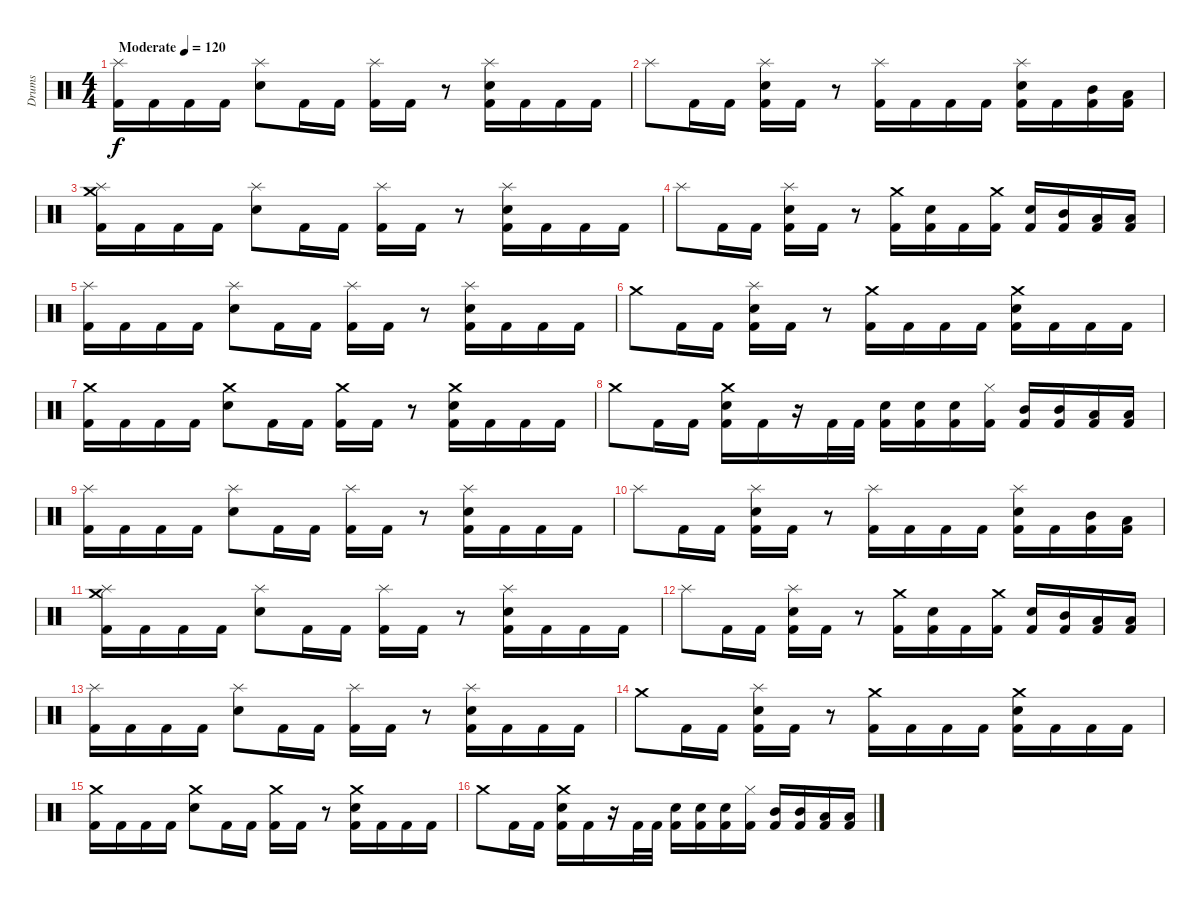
\track ("Drums" "Drums") {instrument percussion}
\staff {score}
\articulation defaults
\ts (4 4)
\tempo (120 "Moderate")
\clef neutral
\ks c
("Splash (hit)" "Kick (hit) 2").16{dy f} "Kick (hit) 2".16 "Kick (hit) 2".16 "Kick (hit) 2".16 ("Splash (hit)" "Electric Snare (hit)").8 "Kick (hit) 2".16 "Kick (hit) 2".16 ("Splash (hit)" "Kick (hit) 2").16 "Kick (hit) 2".16 r.8 ("Splash (hit)" "Electric Snare (hit)" "Kick (hit) 2").16 "Kick (hit) 2".16 "Kick (hit) 2".16 "Kick (hit) 2".16 |
"Splash (hit)".8 "Kick (hit) 2".16 "Kick (hit) 2".16 ("Splash (hit)" "Electric Snare (hit)" "Kick (hit) 2").16 "Kick (hit) 2".16 r.8 ("Splash (hit)" "Kick (hit) 2").16 "Kick (hit) 2".16 "Kick (hit) 2".16 "Kick (hit) 2".16 ("Splash (hit)" "Electric Snare (hit)" "Kick (hit) 2").16 "Kick (hit) 2".16 ("Mid Tom (hit)" "Kick (hit) 2").16 ("Low Tom (hit)" "Kick (hit) 2").16 |
("Splash (hit)" "Crash medium (hit)" "Kick (hit) 2").16 "Kick (hit) 2".16 "Kick (hit) 2".16 "Kick (hit) 2".16 ("Splash (hit)" "Electric Snare (hit)").8 "Kick (hit) 2".16 "Kick (hit) 2".16 ("Splash (hit)" "Kick (hit) 2").16 "Kick (hit) 2".16 r.8 ("Splash (hit)" "Electric Snare (hit)" "Kick (hit) 2").16 "Kick (hit) 2".16 "Kick (hit) 2".16 "Kick (hit) 2".16 |
"Splash (hit)".8 "Kick (hit) 2".16 "Kick (hit) 2".16 ("Splash (hit)" "Electric Snare (hit)" "Kick (hit) 2").16 "Kick (hit) 2".16 r.8 ("Crash medium (hit)" "Kick (hit) 2").16 ("Electric Snare (hit)" "Kick (hit) 2").16 "Kick (hit) 2".16 ("Crash medium (hit)" "Kick (hit) 2").16 ("Electric Snare (hit)" "Kick (hit) 2").16 ("Mid Tom (hit)" "Kick (hit) 2").16 ("Low Tom (hit)" "Kick (hit) 2").16 ("Low Tom (hit)" "Kick (hit) 2").16 |
("Splash (hit)" "Kick (hit) 2").16 "Kick (hit) 2".16 "Kick (hit) 2".16 "Kick (hit) 2".16 ("Splash (hit)" "Electric Snare (hit)").8 "Kick (hit) 2".16 "Kick (hit) 2".16 ("Splash (hit)" "Kick (hit) 2").16 "Kick (hit) 2".16 r.8 ("Splash (hit)" "Electric Snare (hit)" "Kick (hit) 2").16 "Kick (hit) 2".16 "Kick (hit) 2".16 "Kick (hit) 2".16 |
"Crash medium (hit)".8 "Kick (hit) 2".16 "Kick (hit) 2".16 ("Splash (hit)" "Electric Snare (hit)" "Kick (hit) 2").16 "Kick (hit) 2".16 r.8 ("Crash medium (hit)" "Kick (hit) 2").16 "Kick (hit) 2".16 "Kick (hit) 2".16 "Kick (hit) 2".16 ("Crash medium (hit)" "Electric Snare (hit)" "Kick (hit) 2").16 "Kick (hit) 2".16 "Kick (hit) 2".16 "Kick (hit) 2".16 |
("Crash medium (hit)" "Kick (hit) 2").16 "Kick (hit) 2".16 "Kick (hit) 2".16 "Kick (hit) 2".16 ("Crash medium (hit)" "Electric Snare (hit)").8 "Kick (hit) 2".16 "Kick (hit) 2".16 ("Crash medium (hit)" "Kick (hit) 2").16 "Kick (hit) 2".16 r.8 ("Crash medium (hit)" "Electric Snare (hit)" "Kick (hit) 2").16 "Kick (hit) 2".16 "Kick (hit) 2".16 "Kick (hit) 2".16 |
"Crash medium (hit)".8 "Kick (hit) 2".16 "Kick (hit) 2".16 ("Crash medium (hit)" "Electric Snare (hit)" "Kick (hit) 2").16 "Kick (hit) 2".16 r.16 "Kick (hit) 2".32 "Kick (hit) 2".32 ("Electric Snare (hit)" "Kick (hit) 2").16 ("Electric Snare (hit)" "Kick (hit) 2").16 ("Electric Snare (hit)" "Kick (hit) 2").16 ("Hi-Hat (closed)" "Kick (hit) 2").16 ("Mid Tom (hit)" "Kick (hit) 2").16 ("Mid Tom (hit)" "Kick (hit) 2").16 ("Low Tom (hit)" "Kick (hit) 2").16 ("Low Tom (hit)" "Kick (hit) 2").16 |
("Splash (hit)" "Kick (hit) 2").16 "Kick (hit) 2".16 "Kick (hit) 2".16 "Kick (hit) 2".16 ("Splash (hit)" "Electric Snare (hit)").8 "Kick (hit) 2".16 "Kick (hit) 2".16 ("Splash (hit)" "Kick (hit) 2").16 "Kick (hit) 2".16 r.8 ("Splash (hit)" "Electric Snare (hit)" "Kick (hit) 2").16 "Kick (hit) 2".16 "Kick (hit) 2".16 "Kick (hit) 2".16 |
"Splash (hit)".8 "Kick (hit) 2".16 "Kick (hit) 2".16 ("Splash (hit)" "Electric Snare (hit)" "Kick (hit) 2").16 "Kick (hit) 2".16 r.8 ("Splash (hit)" "Kick (hit) 2").16 "Kick (hit) 2".16 "Kick (hit) 2".16 "Kick (hit) 2".16 ("Splash (hit)" "Electric Snare (hit)" "Kick (hit) 2").16 "Kick (hit) 2".16 ("Mid Tom (hit)" "Kick (hit) 2").16 ("Low Tom (hit)" "Kick (hit) 2").16 |
("Splash (hit)" "Crash medium (hit)" "Kick (hit) 2").16 "Kick (hit) 2".16 "Kick (hit) 2".16 "Kick (hit) 2".16 ("Splash (hit)" "Electric Snare (hit)").8 "Kick (hit) 2".16 "Kick (hit) 2".16 ("Splash (hit)" "Kick (hit) 2").16 "Kick (hit) 2".16 r.8 ("Splash (hit)" "Electric Snare (hit)" "Kick (hit) 2").16 "Kick (hit) 2".16 "Kick (hit) 2".16 "Kick (hit) 2".16 |
"Splash (hit)".8 "Kick (hit) 2".16 "Kick (hit) 2".16 ("Splash (hit)" "Electric Snare (hit)" "Kick (hit) 2").16 "Kick (hit) 2".16 r.8 ("Crash medium (hit)" "Kick (hit) 2").16 ("Electric Snare (hit)" "Kick (hit) 2").16 "Kick (hit) 2".16 ("Crash medium (hit)" "Kick (hit) 2").16 ("Electric Snare (hit)" "Kick (hit) 2").16 ("Mid Tom (hit)" "Kick (hit) 2").16 ("Low Tom (hit)" "Kick (hit) 2").16 ("Low Tom (hit)" "Kick (hit) 2").16 |
("Splash (hit)" "Kick (hit) 2").16 "Kick (hit) 2".16 "Kick (hit) 2".16 "Kick (hit) 2".16 ("Splash (hit)" "Electric Snare (hit)").8 "Kick (hit) 2".16 "Kick (hit) 2".16 ("Splash (hit)" "Kick (hit) 2").16 "Kick (hit) 2".16 r.8 ("Splash (hit)" "Electric Snare (hit)" "Kick (hit) 2").16 "Kick (hit) 2".16 "Kick (hit) 2".16 "Kick (hit) 2".16 |
"Crash medium (hit)".8 "Kick (hit) 2".16 "Kick (hit) 2".16 ("Splash (hit)" "Electric Snare (hit)" "Kick (hit) 2").16 "Kick (hit) 2".16 r.8 ("Crash medium (hit)" "Kick (hit) 2").16 "Kick (hit) 2".16 "Kick (hit) 2".16 "Kick (hit) 2".16 ("Crash medium (hit)" "Electric Snare (hit)" "Kick (hit) 2").16 "Kick (hit) 2".16 "Kick (hit) 2".16 "Kick (hit) 2".16 |
("Crash medium (hit)" "Kick (hit) 2").16 "Kick (hit) 2".16 "Kick (hit) 2".16 "Kick (hit) 2".16 ("Crash medium (hit)" "Electric Snare (hit)").8 "Kick (hit) 2".16 "Kick (hit) 2".16 ("Crash medium (hit)" "Kick (hit) 2").16 "Kick (hit) 2".16 r.8 ("Crash medium (hit)" "Electric Snare (hit)" "Kick (hit) 2").16 "Kick (hit) 2".16 "Kick (hit) 2".16 "Kick (hit) 2".16 |
"Crash medium (hit)".8 "Kick (hit) 2".16 "Kick (hit) 2".16 ("Crash medium (hit)" "Electric Snare (hit)" "Kick (hit) 2").16 "Kick (hit) 2".16 r.16 "Kick (hit) 2".32 "Kick (hit) 2".32 ("Electric Snare (hit)" "Kick (hit) 2").16 ("Electric Snare (hit)" "Kick (hit) 2").16 ("Electric Snare (hit)" "Kick (hit) 2").16 ("Hi-Hat (closed)" "Kick (hit) 2").16 ("Mid Tom (hit)" "Kick (hit) 2").16 ("Mid Tom (hit)" "Kick (hit) 2").16 ("Low Tom (hit)" "Kick (hit) 2").16 ("Low Tom (hit)" "Kick (hit) 2").16
